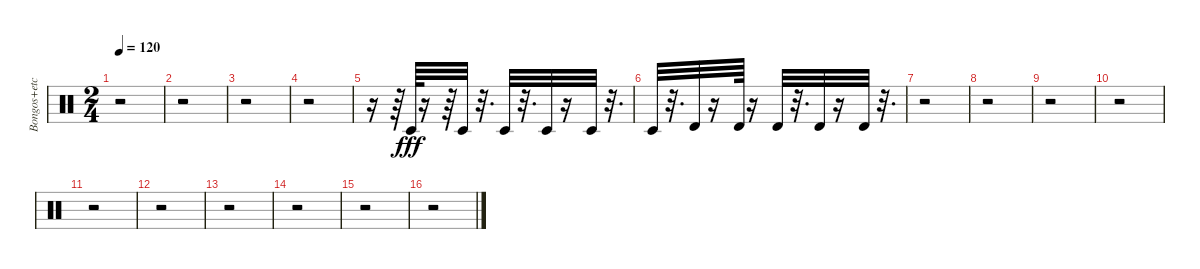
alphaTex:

\track ("Bongos+etc" "Bongos+etc") {instrument percussion}
\staff {score}
\articulation defaults
\ts (2 4)
\tempo 120
\clef neutral
\ks c
r.2{dy fff} |
r.2 |
r.2 |
r.2 |
r.16 r.64 "Timbale low (hit)".64 r.16 r.64 "Timbale low (hit)".32 r.32{d} "Timbale low (hit)".32 r.32{d} "Timbale low (hit)".32 r.16 "Timbale low (hit)".32 r.32{d} |
"Timbale low (hit)".32 r.32{d} "Timbale high (hit)".32 r.16 "Timbale high (hit)".64 r.16 "Timbale high (hit)".32 r.32{d} "Timbale high (hit)".32 r.16 "Timbale high (hit)".32 r.32{d} |
r.2 |
r.2 |
r.2 |
r.2 |
r.2 |
r.2 |
r.2 |
r.2 |
r.2 |
r.2
